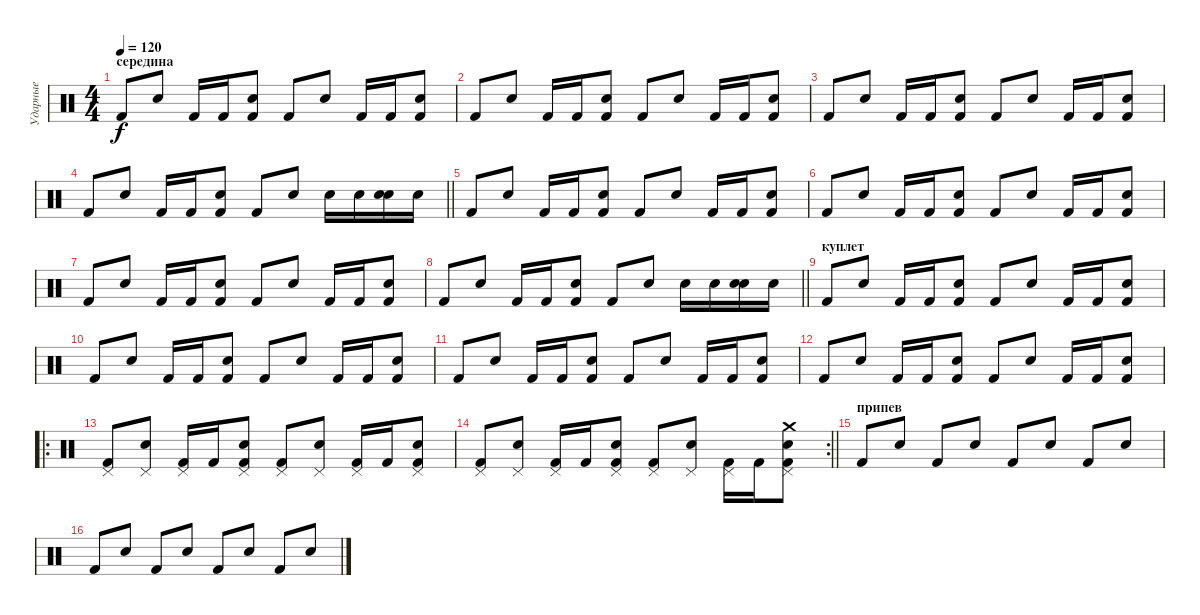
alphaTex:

\track ("Ударные" "Ударные") {instrument percussion}
\staff {score}
\articulation defaults
\ts (4 4)
\section ("" "середина")
\tempo 120
\clef neutral
\ks c "Kick (hit) 2".8{dy f} "Electric Snare (hit)".8 "Kick (hit) 2".16 "Kick (hit) 2".16
("Kick (hit) 2" "Electric Snare (hit)").8 "Kick (hit) 2".8 "Electric Snare (hit)".8 "Kick (hit) 2".16 "Kick (hit) 2".16 ("Kick (hit) 2" "Electric Snare (hit)").8 |
"Kick (hit) 2".8 "Electric Snare (hit)".8 "Kick (hit) 2".16 "Kick (hit) 2".16 ("Kick (hit) 2" "Electric Snare (hit)").8 "Kick (hit) 2".8 "Electric Snare (hit)".8 "Kick (hit) 2".16 "Kick (hit) 2".16 ("Kick (hit) 2" "Electric Snare (hit)").8 |
"Kick (hit) 2".8 "Electric Snare (hit)".8 "Kick (hit) 2".16 "Kick (hit) 2".16 ("Kick (hit) 2" "Electric Snare (hit)").8 "Kick (hit) 2".8 "Electric Snare (hit)".8 "Kick (hit) 2".16 "Kick (hit) 2".16 ("Kick (hit) 2" "Electric Snare (hit)").8 |
\barLineRight lightlight "Kick (hit) 2".8 "Electric Snare (hit)".8 "Kick (hit) 2".16 "Kick (hit) 2".16
("Kick (hit) 2" "Electric Snare (hit)").8 "Kick (hit) 2".8 "Electric Snare (hit)".8 "Electric Snare (hit)".16 "Electric Snare (hit)".16 ("Electric Snare (hit)" "Electric Snare (hit)").16 "Electric Snare (hit)".16 |
"Kick (hit) 2".8 "Electric Snare (hit)".8 "Kick (hit) 2".16 "Kick (hit) 2".16 ("Kick (hit) 2" "Electric Snare (hit)").8 "Kick (hit) 2".8 "Electric Snare (hit)".8 "Kick (hit) 2".16 "Kick (hit) 2".16 ("Kick (hit) 2" "Electric Snare (hit)").8 |
"Kick (hit) 2".8 "Electric Snare (hit)".8 "Kick (hit) 2".16 "Kick (hit) 2".16 ("Kick (hit) 2" "Electric Snare (hit)").8 "Kick (hit) 2".8 "Electric Snare (hit)".8 "Kick (hit) 2".16 "Kick (hit) 2".16 ("Kick (hit) 2" "Electric Snare (hit)").8 |
"Kick (hit) 2".8 "Electric Snare (hit)".8 "Kick (hit) 2".16 "Kick (hit) 2".16 ("Kick (hit) 2" "Electric Snare (hit)").8 "Kick (hit) 2".8 "Electric Snare (hit)".8 "Kick (hit) 2".16 "Kick (hit) 2".16 ("Kick (hit) 2" "Electric Snare (hit)").8 |
\barLineRight lightlight "Kick (hit) 2".8 "Electric Snare (hit)".8 "Kick (hit) 2".16 "Kick (hit) 2".16
("Kick (hit) 2" "Electric Snare (hit)").8 "Kick (hit) 2".8 "Electric Snare (hit)".8 "Electric Snare (hit)".16 "Electric Snare (hit)".16 ("Electric Snare (hit)" "Electric Snare (hit)").16 "Electric Snare (hit)".16 |
\section ("" "куплет")
"Kick (hit) 2".8 "Electric Snare (hit)".8 "Kick (hit) 2".16 "Kick (hit) 2".16 ("Kick (hit) 2" "Electric Snare (hit)").8 "Kick (hit) 2".8 "Electric Snare (hit)".8 "Kick (hit) 2".16 "Kick (hit) 2".16 ("Kick (hit) 2" "Electric Snare (hit)").8 |
"Kick (hit) 2".8 "Electric Snare (hit)".8 "Kick (hit) 2".16 "Kick (hit) 2".16 ("Kick (hit) 2" "Electric Snare (hit)").8 "Kick (hit) 2".8 "Electric Snare (hit)".8 "Kick (hit) 2".16 "Kick (hit) 2".16 ("Kick (hit) 2" "Electric Snare (hit)").8 |
"Kick (hit) 2".8 "Electric Snare (hit)".8 "Kick (hit) 2".16 "Kick (hit) 2".16 ("Kick (hit) 2" "Electric Snare (hit)").8 "Kick (hit) 2".8 "Electric Snare (hit)".8 "Kick (hit) 2".16 "Kick (hit) 2".16 ("Kick (hit) 2" "Electric Snare (hit)").8 |
"Kick (hit) 2".8 "Electric Snare (hit)".8 "Kick (hit) 2".16 "Kick (hit) 2".16 ("Kick (hit) 2" "Electric Snare (hit)").8 "Kick (hit) 2".8 "Electric Snare (hit)".8 "Kick (hit) 2".16 "Kick (hit) 2".16 ("Kick (hit) 2" "Electric Snare (hit)").8 |
\ro
("Kick (hit) 2" "Pedal Hi-Hat (hit)").8 ("Pedal Hi-Hat (hit)" "Electric Snare (hit)").8 ("Kick (hit) 2" "Pedal Hi-Hat (hit)").16 "Kick (hit) 2".16 ("Kick (hit) 2" "Pedal Hi-Hat (hit)" "Electric Snare (hit)").8 ("Kick (hit) 2" "Pedal Hi-Hat (hit)").8 ("Pedal Hi-Hat (hit)" "Electric Snare (hit)").8 ("Kick (hit) 2" "Pedal Hi-Hat (hit)").16 "Kick (hit) 2".16 ("Kick (hit) 2" "Pedal Hi-Hat (hit)" "Electric Snare (hit)").8 |
\rc 2
\barLineRight lightlight
("Kick (hit) 2" "Pedal Hi-Hat (hit)").8 ("Pedal Hi-Hat (hit)" "Electric Snare (hit)").8 ("Kick (hit) 2" "Pedal Hi-Hat (hit)").16 "Kick (hit) 2".16 ("Kick (hit) 2" "Pedal Hi-Hat (hit)" "Electric Snare (hit)").8 ("Kick (hit) 2" "Pedal Hi-Hat (hit)").8 ("Pedal Hi-Hat (hit)" "Electric Snare (hit)").8 ("Kick (hit) 2" "Pedal Hi-Hat (hit)").16 "Kick (hit) 2".16 ("Kick (hit) 2" "Pedal Hi-Hat (hit)" "Electric Snare (hit)" "Crash medium (hit)").8 |
\section ("" "припев")
"Kick (hit) 2".8 "Electric Snare (hit)".8 "Kick (hit) 2".8 "Electric Snare (hit)".8 "Kick (hit) 2".8 "Electric Snare (hit)".8 "Kick (hit) 2".8 "Electric Snare (hit)".8 |
"Kick (hit) 2".8 "Electric Snare (hit)".8 "Kick (hit) 2".8 "Electric Snare (hit)".8 "Kick (hit) 2".8 "Electric Snare (hit)".8 "Kick (hit) 2".8 "Electric Snare (hit)".8
